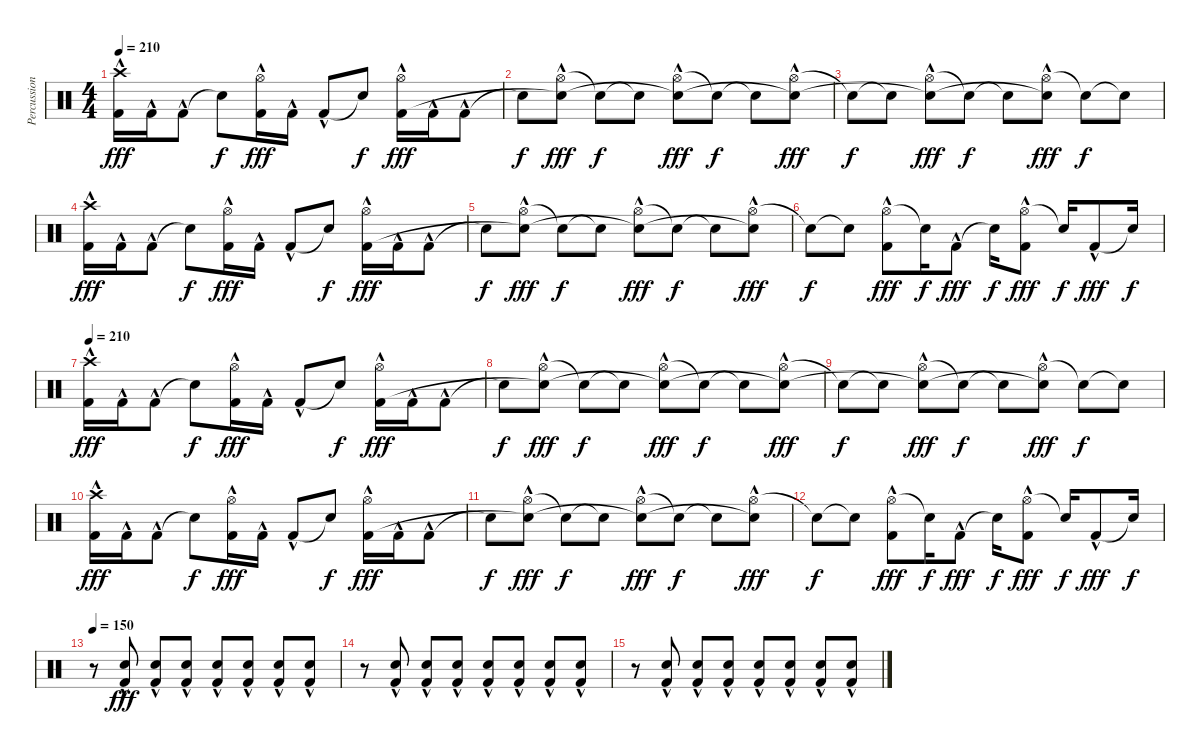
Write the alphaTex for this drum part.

\track ("Percussion" "Percussion") {instrument percussion}
\staff {score}
\articulation defaults
\ts (4 4)
\tempo 210
\clef neutral
\ks c
("Crash high (hit)" "Kick (hit) 2"{hac}).16{dy fff} "Kick (hit) 2"{hac}.16 "Kick (hit) 2"{hac}.8 "Snare (hit)"{t}.8{dy f} ("Hi-Hat (open)"{hac} "Kick (hit) 2"{hac}).16{dy fff} "Kick (hit) 2"{hac}.16 "Kick (hit) 2"{hac}.8 "Snare (hit)"{t}.8{dy f} ("Hi-Hat (open)"{hac} "Kick (hit) 2"{hac}).16{dy fff} "Kick (hit) 2"{hac}.16 "Kick (hit) 2"{hac}.8 |
"Snare (hit)"{t}.8{dy f} ("Hi-Hat (open)"{hac} "Snare (hit)"{t}).8{dy fff} "Snare (hit)"{t}.8{dy f} "Snare (hit)"{t}.8 ("Hi-Hat (open)"{hac} "Snare (hit)"{t}).8{dy fff} "Snare (hit)"{t}.8{dy f} "Snare (hit)"{t}.8 ("Hi-Hat (open)"{hac} "Snare (hit)"{t}).8{dy fff} |
"Snare (hit)"{t}.8{dy f} "Snare (hit)"{t}.8 ("Hi-Hat (open)"{hac} "Snare (hit)"{t}).8{dy fff} "Snare (hit)"{t}.8{dy f} "Snare (hit)"{t}.8 ("Hi-Hat (open)"{hac} "Snare (hit)"{t}).8{dy fff} "Snare (hit)"{t}.8{dy f} "Snare (hit)"{t}.8 |
("Crash high (hit)" "Kick (hit) 2"{hac}).16{dy fff} "Kick (hit) 2"{hac}.16 "Kick (hit) 2"{hac}.8 "Snare (hit)"{t}.8{dy f} ("Hi-Hat (open)"{hac} "Kick (hit) 2"{hac}).16{dy fff} "Kick (hit) 2"{hac}.16 "Kick (hit) 2"{hac}.8 "Snare (hit)"{t}.8{dy f} ("Hi-Hat (open)"{hac} "Kick (hit) 2"{hac}).16{dy fff} "Kick (hit) 2"{hac}.16 "Kick (hit) 2"{hac}.8 |
"Snare (hit)"{t}.8{dy f} ("Hi-Hat (open)"{hac} "Snare (hit)"{t}).8{dy fff} "Snare (hit)"{t}.8{dy f} "Snare (hit)"{t}.8 ("Hi-Hat (open)"{hac} "Snare (hit)"{t}).8{dy fff} "Snare (hit)"{t}.8{dy f} "Snare (hit)"{t}.8 ("Hi-Hat (open)"{hac} "Snare (hit)"{t}).8{dy fff} |
"Snare (hit)"{t}.8{dy f} "Snare (hit)"{t}.8 ("Hi-Hat (open)"{hac} "Kick (hit) 2"{hac}).8{dy fff} "Snare (hit)"{t}.16{dy f} "Kick (hit) 2"{hac}.8{dy fff} "Snare (hit)"{t}.16{dy f} ("Hi-Hat (open)"{hac} "Kick (hit) 2"{hac}).8{dy fff} "Snare (hit)"{t}.16{dy f} "Kick (hit) 2"{hac}.8{dy fff} "Snare (hit)"{t}.16{dy f} |
\tempo 210
("Crash high (hit)" "Kick (hit) 2"{hac}).16{dy fff} "Kick (hit) 2"{hac}.16 "Kick (hit) 2"{hac}.8 "Snare (hit)"{t}.8{dy f} ("Hi-Hat (open)"{hac} "Kick (hit) 2"{hac}).16{dy fff} "Kick (hit) 2"{hac}.16 "Kick (hit) 2"{hac}.8 "Snare (hit)"{t}.8{dy f} ("Hi-Hat (open)"{hac} "Kick (hit) 2"{hac}).16{dy fff} "Kick (hit) 2"{hac}.16 "Kick (hit) 2"{hac}.8 |
"Snare (hit)"{t}.8{dy f} ("Hi-Hat (open)"{hac} "Snare (hit)"{t}).8{dy fff} "Snare (hit)"{t}.8{dy f} "Snare (hit)"{t}.8 ("Hi-Hat (open)"{hac} "Snare (hit)"{t}).8{dy fff} "Snare (hit)"{t}.8{dy f} "Snare (hit)"{t}.8 ("Hi-Hat (open)"{hac} "Snare (hit)"{t}).8{dy fff} |
"Snare (hit)"{t}.8{dy f} "Snare (hit)"{t}.8 ("Hi-Hat (open)"{hac} "Snare (hit)"{t}).8{dy fff} "Snare (hit)"{t}.8{dy f} "Snare (hit)"{t}.8 ("Hi-Hat (open)"{hac} "Snare (hit)"{t}).8{dy fff} "Snare (hit)"{t}.8{dy f} "Snare (hit)"{t}.8 |
("Crash high (hit)" "Kick (hit) 2"{hac}).16{dy fff} "Kick (hit) 2"{hac}.16 "Kick (hit) 2"{hac}.8 "Snare (hit)"{t}.8{dy f} ("Hi-Hat (open)"{hac} "Kick (hit) 2"{hac}).16{dy fff} "Kick (hit) 2"{hac}.16 "Kick (hit) 2"{hac}.8 "Snare (hit)"{t}.8{dy f} ("Hi-Hat (open)"{hac} "Kick (hit) 2"{hac}).16{dy fff} "Kick (hit) 2"{hac}.16 "Kick (hit) 2"{hac}.8 |
"Snare (hit)"{t}.8{dy f} ("Hi-Hat (open)"{hac} "Snare (hit)"{t}).8{dy fff} "Snare (hit)"{t}.8{dy f} "Snare (hit)"{t}.8 ("Hi-Hat (open)"{hac} "Snare (hit)"{t}).8{dy fff} "Snare (hit)"{t}.8{dy f} "Snare (hit)"{t}.8 ("Hi-Hat (open)"{hac} "Snare (hit)"{t}).8{dy fff} |
"Snare (hit)"{t}.8{dy f} "Snare (hit)"{t}.8 ("Hi-Hat (open)"{hac} "Kick (hit) 2"{hac}).8{dy fff} "Snare (hit)"{t}.16{dy f} "Kick (hit) 2"{hac}.8{dy fff} "Snare (hit)"{t}.16{dy f} ("Hi-Hat (open)"{hac} "Kick (hit) 2"{hac}).8{dy fff} "Snare (hit)"{t}.16{dy f} "Kick (hit) 2"{hac}.8{dy fff} "Snare (hit)"{t}.16{dy f} |
\tempo 150
r.8 ("Electric Snare (hit)"{hac} "Kick (hit) 2"{hac}).8{dy fff} ("Electric Snare (hit)"{hac} "Kick (hit) 2"{hac}).8 ("Electric Snare (hit)"{hac} "Kick (hit) 2"{hac}).8 ("Electric Snare (hit)"{hac} "Kick (hit) 2"{hac}).8 ("Electric Snare (hit)"{hac} "Kick (hit) 2"{hac}).8 ("Electric Snare (hit)"{hac} "Kick (hit) 2"{hac}).8 ("Electric Snare (hit)"{hac} "Kick (hit) 2"{hac}).8 |
r.8 ("Electric Snare (hit)"{hac} "Kick (hit) 2"{hac}).8 ("Electric Snare (hit)"{hac} "Kick (hit) 2"{hac}).8 ("Electric Snare (hit)"{hac} "Kick (hit) 2"{hac}).8 ("Electric Snare (hit)"{hac} "Kick (hit) 2"{hac}).8 ("Electric Snare (hit)"{hac} "Kick (hit) 2"{hac}).8 ("Electric Snare (hit)"{hac} "Kick (hit) 2"{hac}).8 ("Electric Snare (hit)"{hac} "Kick (hit) 2"{hac}).8 |
r.8 ("Electric Snare (hit)"{hac} "Kick (hit) 2"{hac}).8 ("Electric Snare (hit)"{hac} "Kick (hit) 2"{hac}).8 ("Electric Snare (hit)"{hac} "Kick (hit) 2"{hac}).8 ("Electric Snare (hit)"{hac} "Kick (hit) 2"{hac}).8 ("Electric Snare (hit)"{hac} "Kick (hit) 2"{hac}).8 ("Electric Snare (hit)"{hac} "Kick (hit) 2"{hac}).8 ("Electric Snare (hit)"{hac} "Kick (hit) 2"{hac}).8
